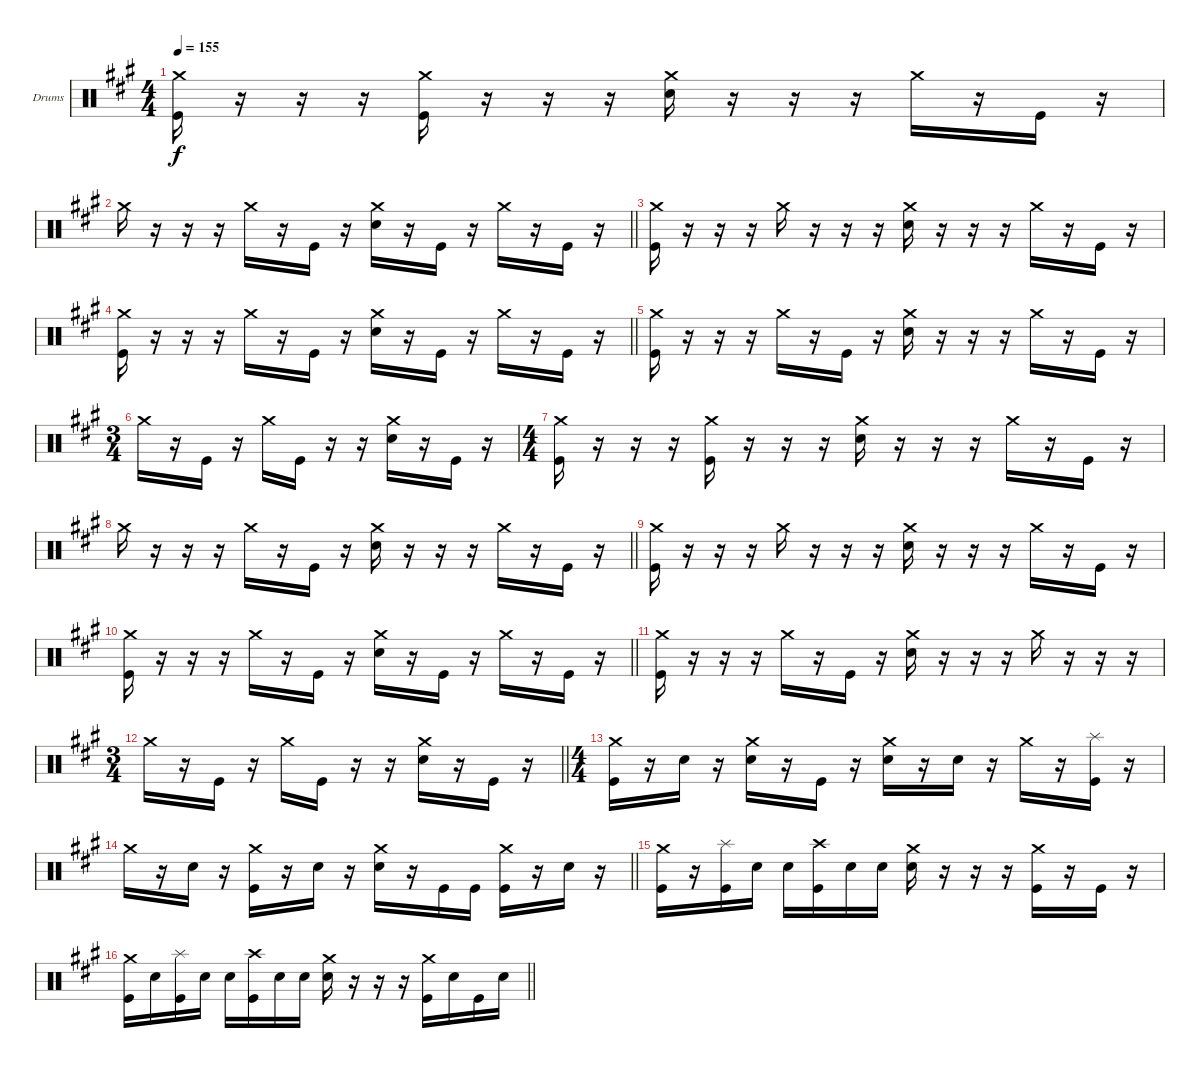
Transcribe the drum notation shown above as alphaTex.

\bracketExtendMode groupsimilarinstruments
\firstSystemTrackNameOrientation horizontal
\otherSystemsTrackNameOrientation horizontal
\track ("Drumkit" "Drums") {instrument percussion}
\staff {score}
\articulation defaults
\ts (4 4)
\beaming (8 2 2 2 2 2)
\tempo 155
\clef neutral
\ks a
("Crash medium (hit)" "Kick (hit)").16{dy f} r.16 r.16 r.16 ("Crash medium (hit)" "Kick (hit)").16 r.16 r.16 r.16 ("Crash medium (hit)" "Snare (hit) 2").16 r.16 r.16 r.16 "Crash medium (hit)".16 r.16 "Kick (hit)".16 r.16 |
\barLineRight lightlight "Crash medium (hit)".16
r.16 r.16 r.16 "Crash medium (hit)".16 r.16 "Kick (hit)".16 r.16 ("Crash medium (hit)" "Snare (hit) 2").16 r.16 "Kick (hit)".16 r.16 "Crash medium (hit)".16 r.16 "Kick (hit)".16 r.16 |
("Crash medium (hit)" "Kick (hit)").16 r.16 r.16 r.16 "Crash medium (hit)".16 r.16 r.16 r.16 ("Crash medium (hit)" "Snare (hit) 2").16 r.16 r.16 r.16 "Crash medium (hit)".16 r.16 "Kick (hit)".16 r.16 |
\barLineRight lightlight
("Crash medium (hit)" "Kick (hit)").16 r.16 r.16 r.16 "Crash medium (hit)".16 r.16 "Kick (hit)".16 r.16 ("Crash medium (hit)" "Snare (hit) 2").16 r.16 "Kick (hit)".16 r.16 "Crash medium (hit)".16 r.16 "Kick (hit)".16 r.16 |
("Crash medium (hit)" "Kick (hit)").16 r.16 r.16 r.16 "Crash medium (hit)".16 r.16 "Kick (hit)".16 r.16 ("Crash medium (hit)" "Snare (hit) 2").16 r.16 r.16 r.16 "Crash medium (hit)".16 r.16 "Kick (hit)".16 r.16 |
\ts (3 4)
\beaming (8 2 2 2 2 2)
"Crash medium (hit)".16 r.16 "Kick (hit)".16 r.16 "Crash medium (hit)".16 "Kick (hit)".16 r.16 r.16 ("Crash medium (hit)" "Snare (hit) 2").16 r.16 "Kick (hit)".16 r.16 |
\ts (4 4)
\beaming (8 2 2 2 2 2)
("Crash medium (hit)" "Kick (hit)").16 r.16 r.16 r.16 ("Crash medium (hit)" "Kick (hit)").16 r.16 r.16 r.16 ("Crash medium (hit)" "Snare (hit) 2").16 r.16 r.16 r.16 "Crash medium (hit)".16 r.16 "Kick (hit)".16 r.16 |
\barLineRight lightlight "Crash medium (hit)".16
r.16 r.16 r.16 "Crash medium (hit)".16 r.16 "Kick (hit)".16 r.16 ("Crash medium (hit)" "Snare (hit) 2").16 r.16 r.16 r.16 "Crash medium (hit)".16 r.16 "Kick (hit)".16 r.16 |
("Crash medium (hit)" "Kick (hit)").16 r.16 r.16 r.16 "Crash medium (hit)".16 r.16 r.16 r.16 ("Crash medium (hit)" "Snare (hit) 2").16 r.16 r.16 r.16 "Crash medium (hit)".16 r.16 "Kick (hit)".16 r.16 |
\barLineRight lightlight
("Crash medium (hit)" "Kick (hit)").16 r.16 r.16 r.16 "Crash medium (hit)".16 r.16 "Kick (hit)".16 r.16 ("Crash medium (hit)" "Snare (hit) 2").16 r.16 "Kick (hit)".16 r.16 "Crash medium (hit)".16 r.16 "Kick (hit)".16 r.16 |
("Crash medium (hit)" "Kick (hit)").16 r.16 r.16 r.16 "Crash medium (hit)".16 r.16 "Kick (hit)".16 r.16 ("Crash medium (hit)" "Snare (hit) 2").16 r.16 r.16 r.16 "Crash medium (hit)".16 r.16 r.16 r.16 |
\ts (3 4)
\beaming (8 2 2 2 2 2)
\barLineRight lightlight "Crash medium (hit)".16
r.16 "Kick (hit)".16 r.16 "Crash medium (hit)".16 "Kick (hit)".16 r.16 r.16 ("Crash medium (hit)" "Snare (hit) 2").16 r.16 "Kick (hit)".16 r.16 |
\ts (4 4)
\beaming (8 2 2 2 2 2)
("Crash medium (hit)" "Kick (hit)").16 r.16 "Snare (hit) 2".16 r.16 ("Crash medium (hit)" "Snare (hit) 2").16 r.16 "Kick (hit)".16 r.16 ("Crash medium (hit)" "Snare (hit) 2").16 r.16 "Snare (hit) 2".16 r.16 "Crash medium (hit)".16 r.16 ("Splash (hit)" "Kick (hit)").16 r.16 |
\barLineRight lightlight "Crash medium (hit)".16
r.16 "Snare (hit) 2".16 r.16 ("Crash medium (hit)" "Kick (hit)").16 r.16 "Snare (hit) 2".16 r.16 ("Crash medium (hit)" "Snare (hit) 2").16 r.16 "Kick (hit)".16 "Kick (hit)".16 ("Crash medium (hit)" "Kick (hit)").16 r.16 "Snare (hit) 2".16 r.16 |
("Crash medium (hit)" "Kick (hit)").16 r.16 ("Splash (hit)" "Kick (hit)").16 "Snare (hit) 2".16 "Snare (hit) 2".16 ("Crash high (hit)" "Kick (hit)").16 "Snare (hit) 2".16 "Snare (hit) 2".16 ("Crash medium (hit)" "Snare (hit) 2").16 r.16 r.16 r.16 ("Crash medium (hit)" "Kick (hit)").16 r.16 "Kick (hit)".16 r.16 |
\barLineRight lightlight
("Crash medium (hit)" "Kick (hit)").16 "Snare (hit) 2".16 ("Splash (hit)" "Kick (hit)").16 "Snare (hit) 2".16 "Snare (hit) 2".16 ("Crash high (hit)" "Kick (hit)").16 "Snare (hit) 2".16 "Snare (hit) 2".16 ("Crash medium (hit)" "Snare (hit) 2").16 r.16 r.16 r.16 ("Crash medium (hit)" "Kick (hit)").16 "Snare (hit) 2".16 "Kick (hit)".16 "Snare (hit) 2".16
